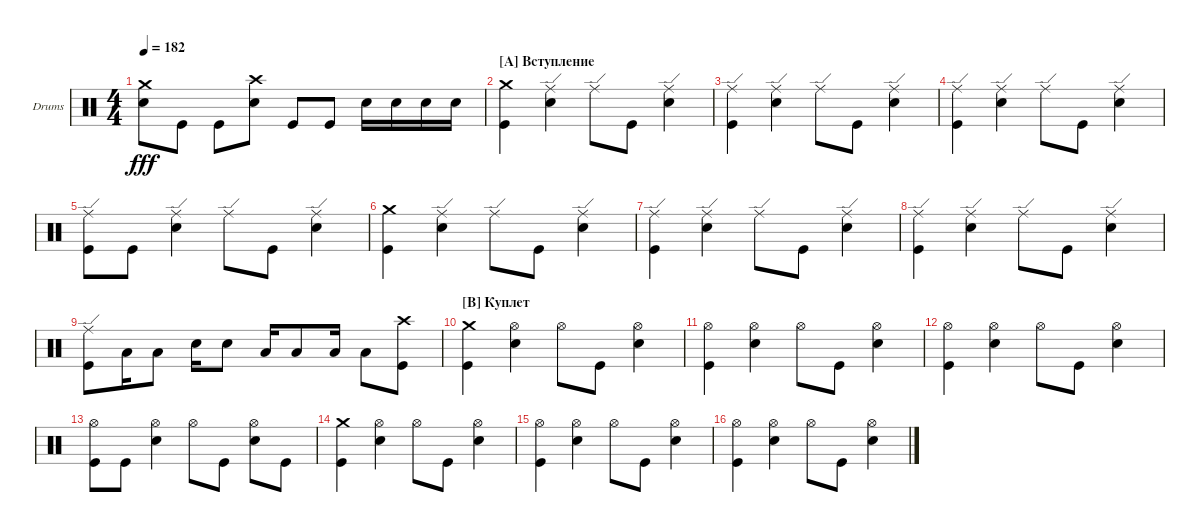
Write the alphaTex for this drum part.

\defaultSystemsLayout 4
\bracketExtendMode groupsimilarinstruments
\firstSystemTrackNameOrientation horizontal
\otherSystemsTrackNameOrientation horizontal
\track ("Drumkit" "Drums") {instrument percussion}
\staff {score}
\articulation defaults
\ts (4 4)
\tempo 182
\clef neutral
\ks c
("Snare (hit) 2" "Crash medium (hit)").8{dy fff} "Kick (hit)".8 "Kick (hit)".8 ("Snare (hit) 2" "Crash high (hit)").8 "Kick (hit)".8 "Kick (hit)".8 "Snare (hit) 2".16 "Snare (hit) 2".16 "Snare (hit) 2".16 "Snare (hit) 2".16 |
\section ("A" "Вступление")
("Kick (hit)" "Crash medium (hit)").4 ("Snare (hit) 2" "Ride (edge)").4 "Ride (edge)".8 "Kick (hit)".8 ("Snare (hit) 2" "Ride (edge)").4 |
("Kick (hit)" "Ride (edge)").4 ("Snare (hit) 2" "Ride (edge)").4 "Ride (edge)".8 "Kick (hit)".8 ("Snare (hit) 2" "Ride (edge)").4 |
("Kick (hit)" "Ride (edge)").4 ("Snare (hit) 2" "Ride (edge)").4 "Ride (edge)".8 "Kick (hit)".8 ("Snare (hit) 2" "Ride (edge)").4 |
("Kick (hit)" "Ride (edge)").8 "Kick (hit)".8 ("Snare (hit) 2" "Ride (edge)").4 "Ride (edge)".8 "Kick (hit)".8 ("Snare (hit) 2" "Ride (edge)").4 |
("Kick (hit)" "Crash medium (hit)").4 ("Snare (hit) 2" "Ride (edge)").4 "Ride (edge)".8 "Kick (hit)".8 ("Snare (hit) 2" "Ride (edge)").4 |
("Kick (hit)" "Ride (edge)").4 ("Snare (hit) 2" "Ride (edge)").4 "Ride (edge)".8 "Kick (hit)".8 ("Snare (hit) 2" "Ride (edge)").4 |
("Kick (hit)" "Ride (edge)").4 ("Snare (hit) 2" "Ride (edge)").4 "Ride (edge)".8 "Kick (hit)".8 ("Snare (hit) 2" "Ride (edge)").4 |
("Kick (hit)" "Ride (edge)").8 "Low Tom (hit)".16 "Low Tom (hit)".8 "Snare (hit) 2".16 "Snare (hit) 2".8 "Low Tom (hit)".16 "Low Tom (hit)".8 "Low Tom (hit)".16 "Low Tom (hit)".8 ("Kick (hit)" "Crash high (hit)").8 |
\section ("B" "Куплет")
("Kick (hit)" "Crash medium (hit)").4 ("Snare (hit) 2" "Hi-Hat (open)").4 "Hi-Hat (open)".8 "Kick (hit)".8 ("Snare (hit) 2" "Hi-Hat (open)").4 |
("Kick (hit)" "Hi-Hat (open)").4 ("Snare (hit) 2" "Hi-Hat (open)").4 "Hi-Hat (open)".8 "Kick (hit)".8 ("Snare (hit) 2" "Hi-Hat (open)").4 |
("Kick (hit)" "Hi-Hat (open)").4 ("Snare (hit) 2" "Hi-Hat (open)").4 "Hi-Hat (open)".8 "Kick (hit)".8 ("Snare (hit) 2" "Hi-Hat (open)").4 |
("Kick (hit)" "Hi-Hat (open)").8 "Kick (hit)".8 ("Snare (hit) 2" "Hi-Hat (open)").4 "Hi-Hat (open)".8 "Kick (hit)".8 ("Snare (hit) 2" "Hi-Hat (open)").8 "Kick (hit)".8 |
("Kick (hit)" "Crash medium (hit)").4 ("Snare (hit) 2" "Hi-Hat (open)").4 "Hi-Hat (open)".8 "Kick (hit)".8 ("Snare (hit) 2" "Hi-Hat (open)").4 |
("Kick (hit)" "Hi-Hat (open)").4 ("Snare (hit) 2" "Hi-Hat (open)").4 "Hi-Hat (open)".8 "Kick (hit)".8 ("Snare (hit) 2" "Hi-Hat (open)").4 |
("Kick (hit)" "Hi-Hat (open)").4 ("Snare (hit) 2" "Hi-Hat (open)").4 "Hi-Hat (open)".8 "Kick (hit)".8 ("Snare (hit) 2" "Hi-Hat (open)").4
